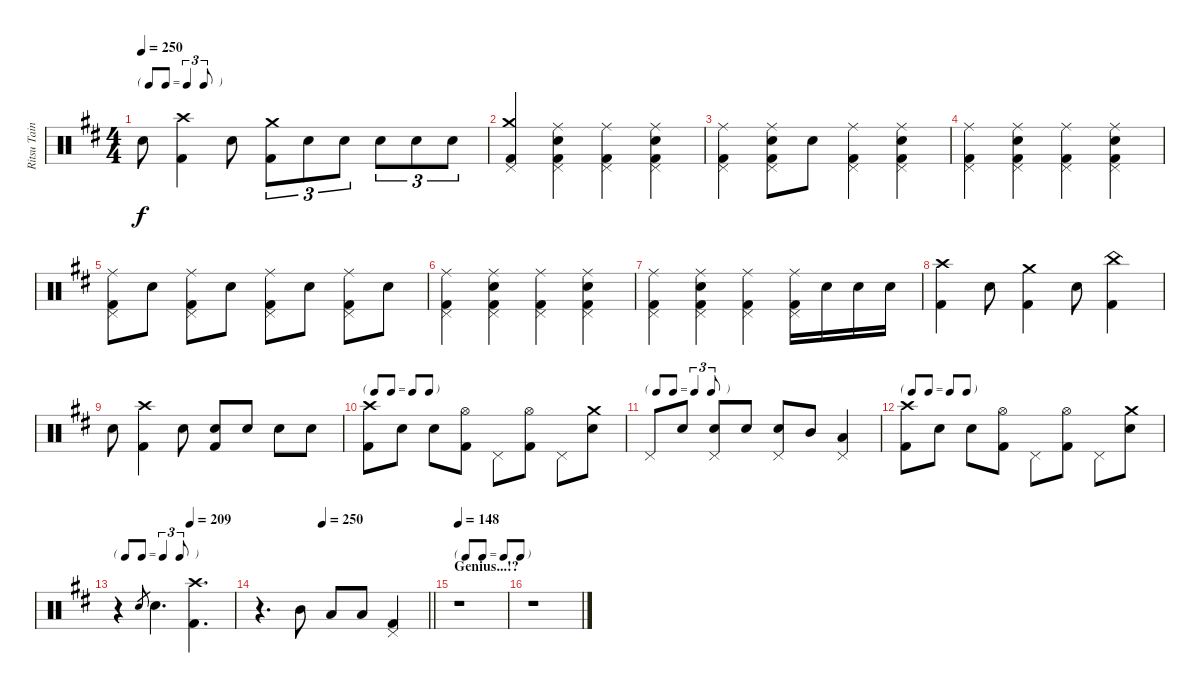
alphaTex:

\track ("Ritsu Tainaka" "Ritsu Tain") {instrument percussion}
\staff {score}
\articulation defaults
\ts (4 4)
\tf triplet8th
\tempo 250
\clef neutral
\ks d "Electric Snare (hit)".8{dy f}
("Crash high (hit)" "Kick (hit) 2").4 "Electric Snare (hit)".8 ("Crash medium (hit)" "Kick (hit) 2").8{tu (3 2)} "Electric Snare (hit)".8{tu (3 2)} "Electric Snare (hit)".8{tu (3 2)} "Electric Snare (hit)".8{tu (3 2)} "Electric Snare (hit)".8{tu (3 2)} "Electric Snare (hit)".8{tu (3 2)} |
("Crash medium (hit)" "Pedal Hi-Hat (hit)" "Kick (hit) 2").4 ("Ride (middle)" "Pedal Hi-Hat (hit)" "Electric Snare (hit)" "Kick (hit) 2").4 ("Ride (middle)" "Pedal Hi-Hat (hit)" "Kick (hit) 2").4 ("Ride (middle)" "Pedal Hi-Hat (hit)" "Electric Snare (hit)" "Kick (hit) 2").4 |
("Ride (middle)" "Pedal Hi-Hat (hit)" "Kick (hit) 2").4 ("Ride (middle)" "Pedal Hi-Hat (hit)" "Electric Snare (hit)" "Kick (hit) 2").8 "Electric Snare (hit)".8 ("Ride (middle)" "Pedal Hi-Hat (hit)" "Kick (hit) 2").4 ("Ride (middle)" "Pedal Hi-Hat (hit)" "Electric Snare (hit)" "Kick (hit) 2").4 |
("Ride (middle)" "Pedal Hi-Hat (hit)" "Kick (hit) 2").4 ("Ride (middle)" "Pedal Hi-Hat (hit)" "Electric Snare (hit)" "Kick (hit) 2").4 ("Ride (middle)" "Pedal Hi-Hat (hit)" "Kick (hit) 2").4 ("Ride (middle)" "Pedal Hi-Hat (hit)" "Electric Snare (hit)" "Kick (hit) 2").4 |
("Ride (middle)" "Pedal Hi-Hat (hit)" "Kick (hit) 2").8 "Electric Snare (hit)".8 ("Ride (middle)" "Pedal Hi-Hat (hit)" "Kick (hit) 2").8 "Electric Snare (hit)".8 ("Ride (middle)" "Pedal Hi-Hat (hit)" "Kick (hit) 2").8 "Electric Snare (hit)".8 ("Ride (middle)" "Pedal Hi-Hat (hit)" "Kick (hit) 2").8 "Electric Snare (hit)".8 |
("Ride (middle)" "Pedal Hi-Hat (hit)" "Kick (hit) 2").4 ("Ride (middle)" "Pedal Hi-Hat (hit)" "Electric Snare (hit)" "Kick (hit) 2").4 ("Ride (middle)" "Pedal Hi-Hat (hit)" "Kick (hit) 2").4 ("Ride (middle)" "Pedal Hi-Hat (hit)" "Electric Snare (hit)" "Kick (hit) 2").4 |
("Ride (middle)" "Pedal Hi-Hat (hit)" "Kick (hit) 2").4 ("Ride (middle)" "Pedal Hi-Hat (hit)" "Electric Snare (hit)" "Kick (hit) 2").4 ("Ride (middle)" "Pedal Hi-Hat (hit)" "Kick (hit) 2").4 ("Ride (middle)" "Pedal Hi-Hat (hit)" "Kick (hit) 2").16 "Electric Snare (hit)".16 "Electric Snare (hit)".16 "Electric Snare (hit)".16 |
("Crash high (hit)" "Kick (hit) 2").4 "Electric Snare (hit)".8 ("Crash medium (hit)" "Kick (hit) 2").4 "Electric Snare (hit)".8 ("China (hit)" "Kick (hit) 2").4 |
"Electric Snare (hit)".8 ("Crash high (hit)" "Kick (hit) 2").4 "Electric Snare (hit)".8 ("Electric Snare (hit)" "Kick (hit) 2").8 "Electric Snare (hit)".8 "Electric Snare (hit)".8 "Electric Snare (hit)".8 |
\tf none
("Crash high (hit)" "Kick (hit) 2").8 "Electric Snare (hit)".8 "Electric Snare (hit)".8 ("Hi-Hat (open)" "Kick (hit) 2").8 "Pedal Hi-Hat (hit)".8 ("Hi-Hat (open)" "Kick (hit) 2").8 "Pedal Hi-Hat (hit)".8 ("Crash medium (hit)" "Electric Snare (hit)").8 |
\tf triplet8th "Pedal Hi-Hat (hit)".8 "Electric Snare (hit)".8
("Pedal Hi-Hat (hit)" "Electric Snare (hit)").8 "Electric Snare (hit)".8 ("Pedal Hi-Hat (hit)" "Electric Snare (hit)").8 "Mid Tom (hit)".8 ("Pedal Hi-Hat (hit)" "Low Floor Tom (hit)").4 |
\tf none
("Crash high (hit)" "Kick (hit) 2").8 "Electric Snare (hit)".8 "Electric Snare (hit)".8 ("Hi-Hat (open)" "Kick (hit) 2").8 "Pedal Hi-Hat (hit)".8 ("Hi-Hat (open)" "Kick (hit) 2").8 "Pedal Hi-Hat (hit)".8 ("Crash medium (hit)" "Electric Snare (hit)").8 |
\tf triplet8th
\tempo (209 0.625)
r.4 "Electric Snare (hit)".8{gr} "Electric Snare (hit)".4{d} ("Crash high (hit)" "Kick (hit) 2").4{d} |
\tempo (250 0.375)
\barLineRight lightlight
r.4{d} "Mid Tom (hit)".8 "Low Floor Tom (hit)".8 "Low Floor Tom (hit)".8 ("Pedal Hi-Hat (hit)" "Kick (hit) 2").4 |
\tf none
\section ("" "Genius...!?")
\tempo 148
r.1 |
r.1
